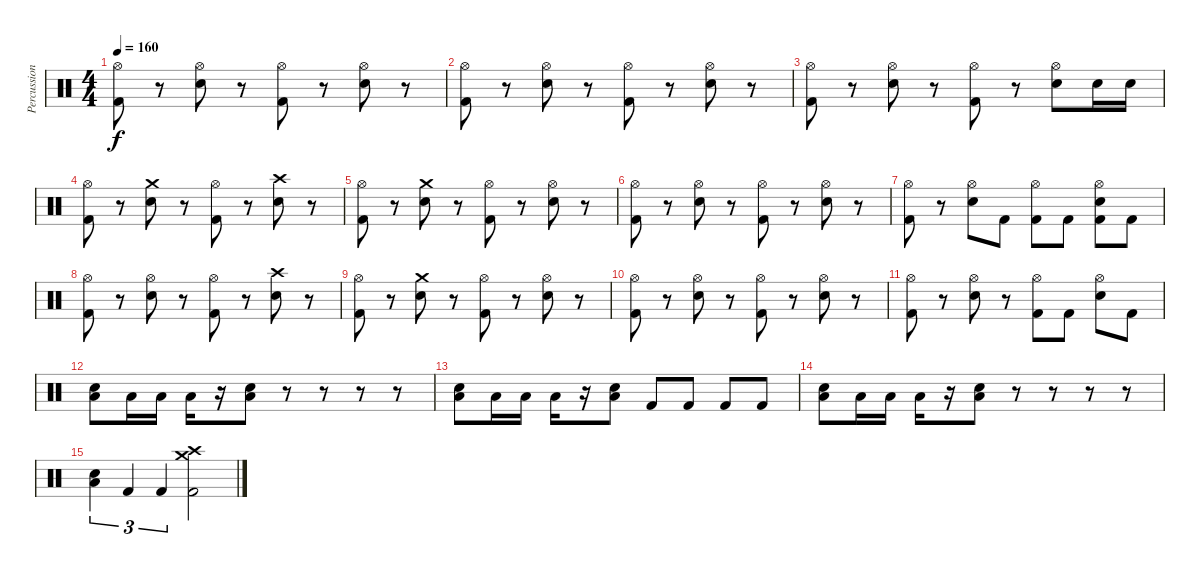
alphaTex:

\track ("Percussion" "Percussion") {instrument percussion}
\staff {score}
\articulation defaults
\ts (4 4)
\tempo 160
\clef neutral
\ks c
("Hi-Hat (open)" "Kick (hit) 2").8{dy f} r.8 ("Hi-Hat (open)" "Snare (hit) 2").8 r.8 ("Hi-Hat (open)" "Kick (hit) 2").8 r.8 ("Hi-Hat (open)" "Snare (hit) 2").8 r.8 |
("Hi-Hat (open)" "Kick (hit) 2").8 r.8 ("Hi-Hat (open)" "Snare (hit) 2").8 r.8 ("Hi-Hat (open)" "Kick (hit) 2").8 r.8 ("Hi-Hat (open)" "Snare (hit) 2").8 r.8 |
("Hi-Hat (open)" "Kick (hit) 2").8 r.8 ("Hi-Hat (open)" "Snare (hit) 2").8 r.8 ("Hi-Hat (open)" "Kick (hit) 2").8 r.8 ("Hi-Hat (open)" "Snare (hit) 2").8 "Snare (hit) 2".16 "Snare (hit) 2".16 |
("Hi-Hat (open)" "Kick (hit) 2").8 r.8 ("Crash medium (hit)" "Snare (hit) 2").8 r.8 ("Hi-Hat (open)" "Kick (hit) 2").8 r.8 ("Crash high (hit)" "Snare (hit) 2").8 r.8 |
("Hi-Hat (open)" "Kick (hit) 2").8 r.8 ("Crash medium (hit)" "Snare (hit) 2").8 r.8 ("Hi-Hat (open)" "Kick (hit) 2").8 r.8 ("Hi-Hat (open)" "Snare (hit) 2").8 r.8 |
("Hi-Hat (open)" "Kick (hit) 2").8 r.8 ("Hi-Hat (open)" "Snare (hit) 2").8 r.8 ("Hi-Hat (open)" "Kick (hit) 2").8 r.8 ("Hi-Hat (open)" "Snare (hit) 2").8 r.8 |
("Hi-Hat (open)" "Kick (hit) 2").8 r.8 ("Hi-Hat (open)" "Snare (hit) 2").8 "Kick (hit) 2".8 ("Hi-Hat (open)" "Kick (hit) 2").8 "Kick (hit) 2".8 ("Hi-Hat (open)" "Snare (hit) 2" "Kick (hit) 2").8 "Kick (hit) 2".8 |
("Hi-Hat (open)" "Kick (hit) 2").8 r.8 ("Hi-Hat (open)" "Snare (hit) 2").8 r.8 ("Hi-Hat (open)" "Kick (hit) 2").8 r.8 ("Crash high (hit)" "Snare (hit) 2").8 r.8 |
("Hi-Hat (open)" "Kick (hit) 2").8 r.8 ("Crash medium (hit)" "Snare (hit) 2").8 r.8 ("Hi-Hat (open)" "Kick (hit) 2").8 r.8 ("Hi-Hat (open)" "Snare (hit) 2").8 r.8 |
("Hi-Hat (open)" "Kick (hit) 2").8 r.8 ("Hi-Hat (open)" "Snare (hit) 2").8 r.8 ("Hi-Hat (open)" "Kick (hit) 2").8 r.8 ("Hi-Hat (open)" "Snare (hit) 2").8 r.8 |
("Hi-Hat (open)" "Kick (hit) 2").8 r.8 ("Hi-Hat (open)" "Snare (hit) 2").8 r.8 ("Hi-Hat (open)" "Kick (hit) 2").8 "Kick (hit) 2".8 ("Hi-Hat (open)" "Snare (hit) 2").8 "Kick (hit) 2".8 |
("Low Floor Tom (hit)" "Snare (hit) 2").8 "Low Floor Tom (hit)".16 "Low Floor Tom (hit)".16 "Low Floor Tom (hit)".16 r.16 ("Low Floor Tom (hit)" "Snare (hit) 2").8 r.8 r.8 r.8 r.8 |
("Low Floor Tom (hit)" "Snare (hit) 2").8 "Low Floor Tom (hit)".16 "Low Floor Tom (hit)".16 "Low Floor Tom (hit)".16 r.16 ("Low Floor Tom (hit)" "Snare (hit) 2").8 "Kick (hit) 2".8 "Kick (hit) 2".8 "Kick (hit) 2".8 "Kick (hit) 2".8 |
("Low Floor Tom (hit)" "Snare (hit) 2").8 "Low Floor Tom (hit)".16 "Low Floor Tom (hit)".16 "Low Floor Tom (hit)".16 r.16 ("Low Floor Tom (hit)" "Snare (hit) 2").8 r.8 r.8 r.8 r.8 |
("Low Floor Tom (hit)" "Snare (hit) 2").4{tu (3 2)} "Kick (hit) 2".4{tu (3 2)} "Kick (hit) 2".4{tu (3 2)} ("Crash high (hit)" "Crash medium (hit)" "Kick (hit) 2").2
